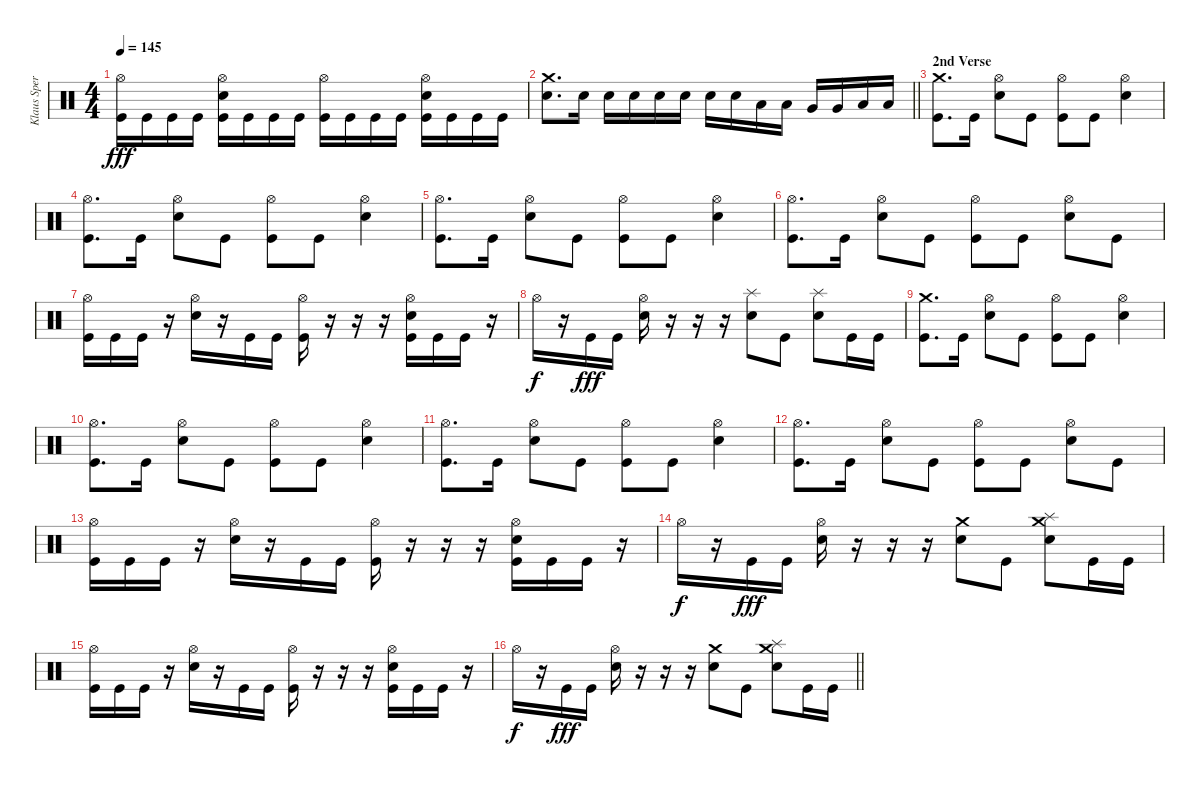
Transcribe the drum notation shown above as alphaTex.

\track ("Klaus Sperling" "Klaus Sper") {instrument percussion}
\staff {score}
\articulation defaults
\ts (4 4)
\tempo 145
\clef neutral
\ks c
("Hi-Hat (open)" "Kick (hit)").16{dy fff} "Kick (hit)".16 "Kick (hit)".16 "Kick (hit)".16 ("Hi-Hat (open)" "Electric Snare (hit)" "Kick (hit)").16 "Kick (hit)".16 "Kick (hit)".16 "Kick (hit)".16 ("Hi-Hat (open)" "Kick (hit)").16 "Kick (hit)".16 "Kick (hit)".16 "Kick (hit)".16 ("Hi-Hat (open)" "Electric Snare (hit)" "Kick (hit)").16 "Kick (hit)".16 "Kick (hit)".16 "Kick (hit)".16 |
\barLineRight lightlight
("Crash medium (hit)" "Electric Snare (hit)").8{d} "Electric Snare (hit)".16 "Electric Snare (hit)".16 "Electric Snare (hit)".16 "Electric Snare (hit)".16 "Electric Snare (hit)".16 "Electric Snare (hit)".16 "Electric Snare (hit)".16 "Low Tom (hit)".16 "Low Tom (hit)".16 "Very Low Tom (hit)".16 "Very Low Tom (hit)".16 "Low Floor Tom (hit)".16 "Low Floor Tom (hit)".16 |
\section ("" "2nd Verse")
("Crash medium (hit)" "Kick (hit)").8{d} "Kick (hit)".16 ("Hi-Hat (open)" "Electric Snare (hit)").8 "Kick (hit)".8 ("Hi-Hat (open)" "Kick (hit)").8 "Kick (hit)".8 ("Hi-Hat (open)" "Electric Snare (hit)").4 |
("Hi-Hat (open)" "Kick (hit)").8{d} "Kick (hit)".16 ("Hi-Hat (open)" "Electric Snare (hit)").8 "Kick (hit)".8 ("Hi-Hat (open)" "Kick (hit)").8 "Kick (hit)".8 ("Hi-Hat (open)" "Electric Snare (hit)").4 |
("Hi-Hat (open)" "Kick (hit)").8{d} "Kick (hit)".16 ("Hi-Hat (open)" "Electric Snare (hit)").8 "Kick (hit)".8 ("Hi-Hat (open)" "Kick (hit)").8 "Kick (hit)".8 ("Hi-Hat (open)" "Electric Snare (hit)").4 |
("Hi-Hat (open)" "Kick (hit)").8{d} "Kick (hit)".16 ("Hi-Hat (open)" "Electric Snare (hit)").8 "Kick (hit)".8 ("Hi-Hat (open)" "Kick (hit)").8 "Kick (hit)".8 ("Hi-Hat (open)" "Electric Snare (hit)").8 "Kick (hit)".8 |
("Hi-Hat (open)" "Kick (hit)").16 "Kick (hit)".16 "Kick (hit)".16 r.16 ("Hi-Hat (open)" "Electric Snare (hit)").16 r.16 "Kick (hit)".16 "Kick (hit)".16 ("Hi-Hat (open)" "Kick (hit)").16 r.16 r.16 r.16 ("Hi-Hat (open)" "Electric Snare (hit)" "Kick (hit)").16 "Kick (hit)".16 "Kick (hit)".16 r.16 |
"Hi-Hat (open)".16{dy f} r.16 "Kick (hit)".16{dy fff} "Kick (hit)".16 ("Hi-Hat (open)" "Electric Snare (hit)").16 r.16 r.16 r.16 ("Splash (hit)" "Electric Snare (hit)").8 "Kick (hit)".8 ("Splash (hit)" "Electric Snare (hit)").8 "Kick (hit)".16 "Kick (hit)".16 |
("Crash medium (hit)" "Kick (hit)").8{d} "Kick (hit)".16 ("Hi-Hat (open)" "Electric Snare (hit)").8 "Kick (hit)".8 ("Hi-Hat (open)" "Kick (hit)").8 "Kick (hit)".8 ("Hi-Hat (open)" "Electric Snare (hit)").4 |
("Hi-Hat (open)" "Kick (hit)").8{d} "Kick (hit)".16 ("Hi-Hat (open)" "Electric Snare (hit)").8 "Kick (hit)".8 ("Hi-Hat (open)" "Kick (hit)").8 "Kick (hit)".8 ("Hi-Hat (open)" "Electric Snare (hit)").4 |
("Hi-Hat (open)" "Kick (hit)").8{d} "Kick (hit)".16 ("Hi-Hat (open)" "Electric Snare (hit)").8 "Kick (hit)".8 ("Hi-Hat (open)" "Kick (hit)").8 "Kick (hit)".8 ("Hi-Hat (open)" "Electric Snare (hit)").4 |
("Hi-Hat (open)" "Kick (hit)").8{d} "Kick (hit)".16 ("Hi-Hat (open)" "Electric Snare (hit)").8 "Kick (hit)".8 ("Hi-Hat (open)" "Kick (hit)").8 "Kick (hit)".8 ("Hi-Hat (open)" "Electric Snare (hit)").8 "Kick (hit)".8 |
("Hi-Hat (open)" "Kick (hit)").16 "Kick (hit)".16 "Kick (hit)".16 r.16 ("Hi-Hat (open)" "Electric Snare (hit)").16 r.16 "Kick (hit)".16 "Kick (hit)".16 ("Hi-Hat (open)" "Kick (hit)").16 r.16 r.16 r.16 ("Hi-Hat (open)" "Electric Snare (hit)" "Kick (hit)").16 "Kick (hit)".16 "Kick (hit)".16 r.16 |
"Hi-Hat (open)".16{dy f} r.16 "Kick (hit)".16{dy fff} "Kick (hit)".16 ("Hi-Hat (open)" "Electric Snare (hit)").16 r.16 r.16 r.16 ("Crash medium (hit)" "Electric Snare (hit)").8 "Kick (hit)".8 ("Crash medium (hit)" "Splash (hit)" "Electric Snare (hit)").8 "Kick (hit)".16 "Kick (hit)".16 |
("Hi-Hat (open)" "Kick (hit)").16 "Kick (hit)".16 "Kick (hit)".16 r.16 ("Hi-Hat (open)" "Electric Snare (hit)").16 r.16 "Kick (hit)".16 "Kick (hit)".16 ("Hi-Hat (open)" "Kick (hit)").16 r.16 r.16 r.16 ("Hi-Hat (open)" "Electric Snare (hit)" "Kick (hit)").16 "Kick (hit)".16 "Kick (hit)".16 r.16 |
\barLineRight lightlight "Hi-Hat (open)".16{dy f}
r.16 "Kick (hit)".16{dy fff} "Kick (hit)".16 ("Hi-Hat (open)" "Electric Snare (hit)").16 r.16 r.16 r.16 ("Crash medium (hit)" "Electric Snare (hit)").8 "Kick (hit)".8 ("Crash medium (hit)" "Splash (hit)" "Electric Snare (hit)").8 "Kick (hit)".16 "Kick (hit)".16
